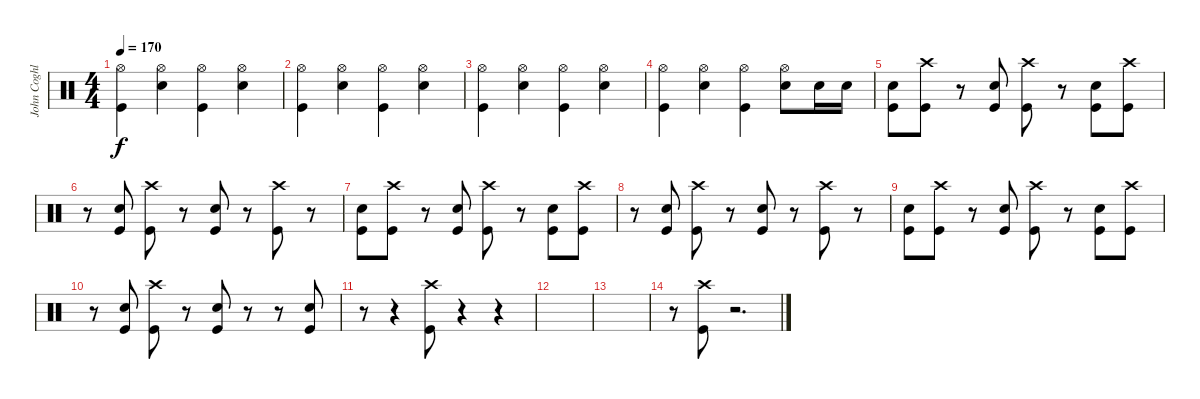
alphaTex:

\track ("John Coghlan" "John Coghl") {instrument percussion}
\staff {score}
\articulation defaults
\ts (4 4)
\tempo 170
\clef neutral
\ks c
("Hi-Hat (open)" "Kick (hit)").4{dy f} ("Hi-Hat (open)" "Electric Snare (hit)").4 ("Hi-Hat (open)" "Kick (hit)").4 ("Hi-Hat (open)" "Electric Snare (hit)").4 |
("Hi-Hat (open)" "Kick (hit)").4 ("Hi-Hat (open)" "Electric Snare (hit)").4 ("Hi-Hat (open)" "Kick (hit)").4 ("Hi-Hat (open)" "Electric Snare (hit)").4 |
("Hi-Hat (open)" "Kick (hit)").4 ("Hi-Hat (open)" "Electric Snare (hit)").4 ("Hi-Hat (open)" "Kick (hit)").4 ("Hi-Hat (open)" "Electric Snare (hit)").4 |
("Hi-Hat (open)" "Kick (hit)").4 ("Hi-Hat (open)" "Electric Snare (hit)").4 ("Hi-Hat (open)" "Kick (hit)").4 ("Hi-Hat (open)" "Electric Snare (hit)").8 "Electric Snare (hit)".16 "Electric Snare (hit)".16 |
("Electric Snare (hit)" "Kick (hit)").8 ("Crash high (hit)" "Kick (hit)").8 r.8 ("Electric Snare (hit)" "Kick (hit)").8 ("Crash high (hit)" "Kick (hit)").8 r.8 ("Electric Snare (hit)" "Kick (hit)").8 ("Crash high (hit)" "Kick (hit)").8 |
r.8 ("Electric Snare (hit)" "Kick (hit)").8 ("Crash high (hit)" "Kick (hit)").8 r.8 ("Electric Snare (hit)" "Kick (hit)").8 r.8 ("Crash high (hit)" "Kick (hit)").8 r.8 |
("Electric Snare (hit)" "Kick (hit)").8 ("Crash high (hit)" "Kick (hit)").8 r.8 ("Electric Snare (hit)" "Kick (hit)").8 ("Crash high (hit)" "Kick (hit)").8 r.8 ("Electric Snare (hit)" "Kick (hit)").8 ("Crash high (hit)" "Kick (hit)").8 |
r.8 ("Electric Snare (hit)" "Kick (hit)").8 ("Crash high (hit)" "Kick (hit)").8 r.8 ("Electric Snare (hit)" "Kick (hit)").8 r.8 ("Crash high (hit)" "Kick (hit)").8 r.8 |
("Electric Snare (hit)" "Kick (hit)").8 ("Crash high (hit)" "Kick (hit)").8 r.8 ("Electric Snare (hit)" "Kick (hit)").8 ("Crash high (hit)" "Kick (hit)").8 r.8 ("Electric Snare (hit)" "Kick (hit)").8 ("Crash high (hit)" "Kick (hit)").8 |
r.8 ("Electric Snare (hit)" "Kick (hit)").8 ("Crash high (hit)" "Kick (hit)").8 r.8 ("Electric Snare (hit)" "Kick (hit)").8 r.8 r.8 ("Electric Snare (hit)" "Kick (hit)").8 |
r.8 r.4 ("Crash high (hit)" "Kick (hit)").8 r.4 r.4 |
|
|
r.8 ("Kick (hit)" "Crash high (hit)").8 r.2{d}
